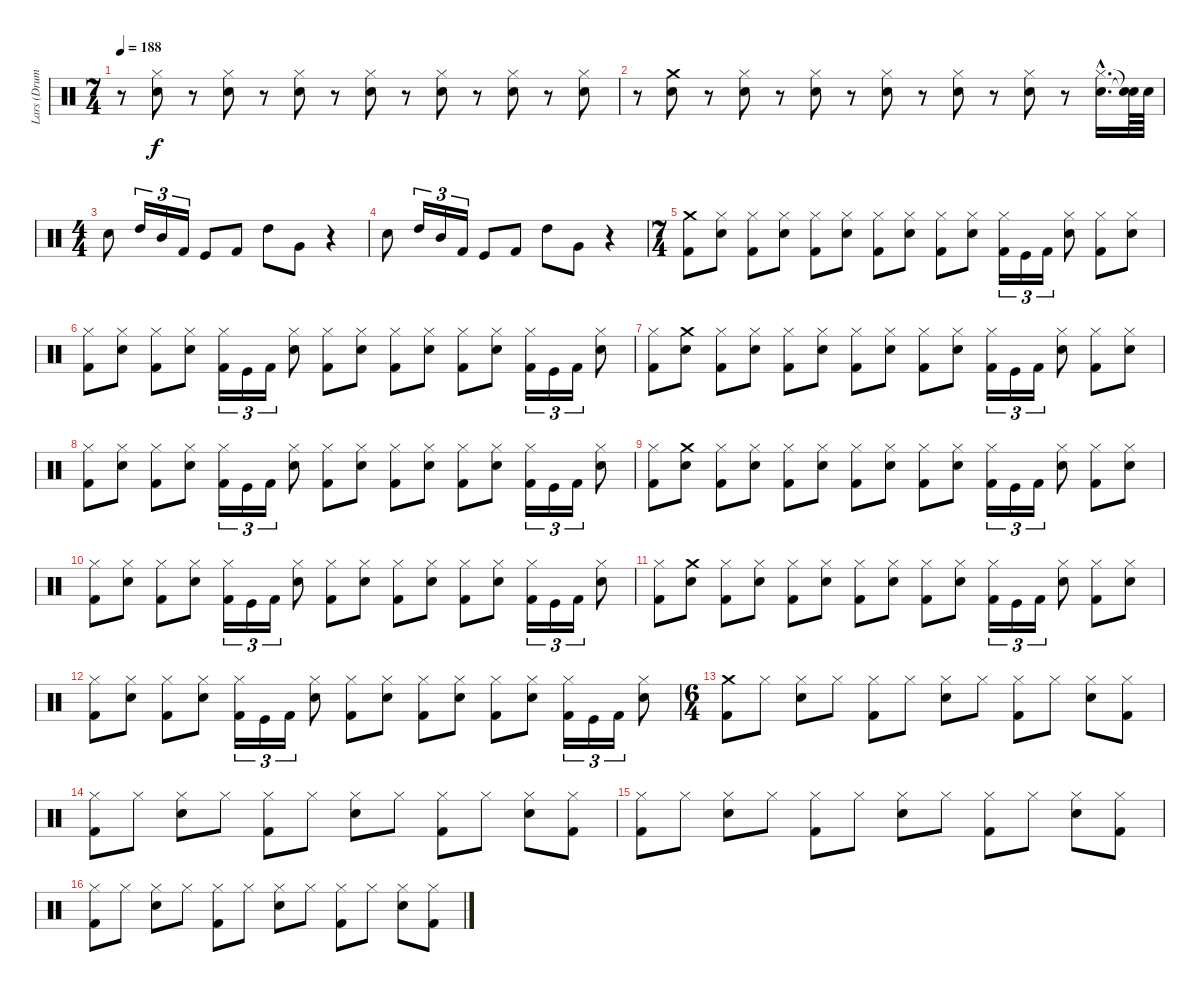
\track ("Lars (Drums)" "Lars (Drum") {instrument percussion}
\staff {score}
\articulation defaults
\ts (7 4)
\tempo 188
\clef neutral
\ks c
r.8{dy f} ("Snare (hit) 2" "Hi-Hat (closed)").8 r.8 ("Snare (hit) 2" "Hi-Hat (closed)").8 r.8 ("Snare (hit) 2" "Hi-Hat (closed)").8 r.8 ("Snare (hit) 2" "Hi-Hat (closed)").8 r.8 ("Snare (hit) 2" "Hi-Hat (closed)").8 r.8 ("Snare (hit) 2" "Hi-Hat (closed)").8 r.8 ("Snare (hit) 2" "Hi-Hat (closed)").8 |
r.8 ("Crash medium (hit)" "Snare (hit) 2").8 r.8 ("Snare (hit) 2" "Hi-Hat (closed)").8 r.8 ("Snare (hit) 2" "Hi-Hat (closed)").8 r.8 ("Snare (hit) 2" "Hi-Hat (closed)").8 r.8 ("Snare (hit) 2" "Hi-Hat (closed)").8 r.8 ("Snare (hit) 2" "Hi-Hat (closed)").8 r.8 ("Snare (hit) 2"{hac} "Hi-Hat (closed)"{hac}).16{d} ("Snare (hit)"{t} "Snare (hit)"{t}).64 "Snare (hit) 2".64 |
\ts (4 4)
"Snare (hit) 2".8 "High Tom (hit)".16{tu (3 2)} "Mid Tom (hit)".16{tu (3 2)} "Kick (hit) 2".16{tu (3 2)} "Kick (hit)".8 "Kick (hit) 2".8 "High Tom (hit)".8 "Very Low Tom (hit)".8 r.4 |
"Snare (hit) 2".8 "High Tom (hit)".16{tu (3 2)} "Mid Tom (hit)".16{tu (3 2)} "Kick (hit) 2".16{tu (3 2)} "Kick (hit)".8 "Kick (hit) 2".8 "High Tom (hit)".8 "Very Low Tom (hit)".8 r.4 |
\ts (7 4)
("Crash medium (hit)" "Kick (hit) 2").8 ("Snare (hit) 2" "Hi-Hat (closed)").8 ("Hi-Hat (closed)" "Kick (hit) 2").8 ("Snare (hit) 2" "Hi-Hat (closed)").8 ("Hi-Hat (closed)" "Kick (hit) 2").8 ("Snare (hit) 2" "Hi-Hat (closed)").8 ("Hi-Hat (closed)" "Kick (hit) 2").8 ("Snare (hit) 2" "Hi-Hat (closed)").8 ("Hi-Hat (closed)" "Kick (hit) 2").8 ("Snare (hit) 2" "Hi-Hat (closed)").8 ("Hi-Hat (closed)" "Kick (hit) 2").16{tu (3 2)} "Kick (hit)".16{tu (3 2)} "Kick (hit) 2".16{tu (3 2)} ("Snare (hit) 2" "Hi-Hat (closed)").8 ("Hi-Hat (closed)" "Kick (hit) 2").8 ("Snare (hit) 2" "Hi-Hat (closed)").8 |
("Hi-Hat (closed)" "Kick (hit) 2").8 ("Snare (hit) 2" "Hi-Hat (closed)").8 ("Hi-Hat (closed)" "Kick (hit) 2").8 ("Snare (hit) 2" "Hi-Hat (closed)").8 ("Hi-Hat (closed)" "Kick (hit) 2").16{tu (3 2)} "Kick (hit)".16{tu (3 2)} "Kick (hit) 2".16{tu (3 2)} ("Snare (hit) 2" "Hi-Hat (closed)").8 ("Hi-Hat (closed)" "Kick (hit) 2").8 ("Snare (hit) 2" "Hi-Hat (closed)").8 ("Hi-Hat (closed)" "Kick (hit) 2").8 ("Snare (hit) 2" "Hi-Hat (closed)").8 ("Kick (hit) 2" "Hi-Hat (closed)").8 ("Snare (hit) 2" "Hi-Hat (closed)").8 ("Kick (hit) 2" "Hi-Hat (closed)").16{tu (3 2)} "Kick (hit)".16{tu (3 2)} "Kick (hit) 2".16{tu (3 2)} ("Snare (hit) 2" "Hi-Hat (closed)").8 |
("Hi-Hat (closed)" "Kick (hit) 2").8 ("Crash medium (hit)" "Snare (hit) 2").8 ("Hi-Hat (closed)" "Kick (hit) 2").8 ("Snare (hit) 2" "Hi-Hat (closed)").8 ("Hi-Hat (closed)" "Kick (hit) 2").8 ("Snare (hit) 2" "Hi-Hat (closed)").8 ("Hi-Hat (closed)" "Kick (hit) 2").8 ("Snare (hit) 2" "Hi-Hat (closed)").8 ("Hi-Hat (closed)" "Kick (hit) 2").8 ("Snare (hit) 2" "Hi-Hat (closed)").8 ("Hi-Hat (closed)" "Kick (hit) 2").16{tu (3 2)} "Kick (hit)".16{tu (3 2)} "Kick (hit) 2".16{tu (3 2)} ("Snare (hit) 2" "Hi-Hat (closed)").8 ("Hi-Hat (closed)" "Kick (hit) 2").8 ("Snare (hit) 2" "Hi-Hat (closed)").8 |
("Hi-Hat (closed)" "Kick (hit) 2").8 ("Snare (hit) 2" "Hi-Hat (closed)").8 ("Hi-Hat (closed)" "Kick (hit) 2").8 ("Snare (hit) 2" "Hi-Hat (closed)").8 ("Hi-Hat (closed)" "Kick (hit) 2").16{tu (3 2)} "Kick (hit)".16{tu (3 2)} "Kick (hit) 2".16{tu (3 2)} ("Snare (hit) 2" "Hi-Hat (closed)").8 ("Hi-Hat (closed)" "Kick (hit) 2").8 ("Snare (hit) 2" "Hi-Hat (closed)").8 ("Hi-Hat (closed)" "Kick (hit) 2").8 ("Snare (hit) 2" "Hi-Hat (closed)").8 ("Kick (hit) 2" "Hi-Hat (closed)").8 ("Snare (hit) 2" "Hi-Hat (closed)").8 ("Kick (hit) 2" "Hi-Hat (closed)").16{tu (3 2)} "Kick (hit)".16{tu (3 2)} "Kick (hit) 2".16{tu (3 2)} ("Snare (hit) 2" "Hi-Hat (closed)").8 |
("Hi-Hat (closed)" "Kick (hit) 2").8 ("Crash medium (hit)" "Snare (hit) 2").8 ("Hi-Hat (closed)" "Kick (hit) 2").8 ("Snare (hit) 2" "Hi-Hat (closed)").8 ("Hi-Hat (closed)" "Kick (hit) 2").8 ("Snare (hit) 2" "Hi-Hat (closed)").8 ("Hi-Hat (closed)" "Kick (hit) 2").8 ("Snare (hit) 2" "Hi-Hat (closed)").8 ("Hi-Hat (closed)" "Kick (hit) 2").8 ("Snare (hit) 2" "Hi-Hat (closed)").8 ("Hi-Hat (closed)" "Kick (hit) 2").16{tu (3 2)} "Kick (hit)".16{tu (3 2)} "Kick (hit) 2".16{tu (3 2)} ("Snare (hit) 2" "Hi-Hat (closed)").8 ("Hi-Hat (closed)" "Kick (hit) 2").8 ("Snare (hit) 2" "Hi-Hat (closed)").8 |
("Hi-Hat (closed)" "Kick (hit) 2").8 ("Snare (hit) 2" "Hi-Hat (closed)").8 ("Hi-Hat (closed)" "Kick (hit) 2").8 ("Snare (hit) 2" "Hi-Hat (closed)").8 ("Hi-Hat (closed)" "Kick (hit) 2").16{tu (3 2)} "Kick (hit)".16{tu (3 2)} "Kick (hit) 2".16{tu (3 2)} ("Snare (hit) 2" "Hi-Hat (closed)").8 ("Hi-Hat (closed)" "Kick (hit) 2").8 ("Snare (hit) 2" "Hi-Hat (closed)").8 ("Hi-Hat (closed)" "Kick (hit) 2").8 ("Snare (hit) 2" "Hi-Hat (closed)").8 ("Kick (hit) 2" "Hi-Hat (closed)").8 ("Snare (hit) 2" "Hi-Hat (closed)").8 ("Kick (hit) 2" "Hi-Hat (closed)").16{tu (3 2)} "Kick (hit)".16{tu (3 2)} "Kick (hit) 2".16{tu (3 2)} ("Snare (hit) 2" "Hi-Hat (closed)").8 |
("Hi-Hat (closed)" "Kick (hit) 2").8 ("Crash medium (hit)" "Snare (hit) 2").8 ("Hi-Hat (closed)" "Kick (hit) 2").8 ("Snare (hit) 2" "Hi-Hat (closed)").8 ("Hi-Hat (closed)" "Kick (hit) 2").8 ("Snare (hit) 2" "Hi-Hat (closed)").8 ("Hi-Hat (closed)" "Kick (hit) 2").8 ("Snare (hit) 2" "Hi-Hat (closed)").8 ("Hi-Hat (closed)" "Kick (hit) 2").8 ("Snare (hit) 2" "Hi-Hat (closed)").8 ("Hi-Hat (closed)" "Kick (hit) 2").16{tu (3 2)} "Kick (hit)".16{tu (3 2)} "Kick (hit) 2".16{tu (3 2)} ("Snare (hit) 2" "Hi-Hat (closed)").8 ("Hi-Hat (closed)" "Kick (hit) 2").8 ("Snare (hit) 2" "Hi-Hat (closed)").8 |
("Hi-Hat (closed)" "Kick (hit) 2").8 ("Snare (hit) 2" "Hi-Hat (closed)").8 ("Hi-Hat (closed)" "Kick (hit) 2").8 ("Snare (hit) 2" "Hi-Hat (closed)").8 ("Hi-Hat (closed)" "Kick (hit) 2").16{tu (3 2)} "Kick (hit)".16{tu (3 2)} "Kick (hit) 2".16{tu (3 2)} ("Snare (hit) 2" "Hi-Hat (closed)").8 ("Hi-Hat (closed)" "Kick (hit) 2").8 ("Snare (hit) 2" "Hi-Hat (closed)").8 ("Hi-Hat (closed)" "Kick (hit) 2").8 ("Snare (hit) 2" "Hi-Hat (closed)").8 ("Kick (hit) 2" "Hi-Hat (closed)").8 ("Snare (hit) 2" "Hi-Hat (closed)").8 ("Kick (hit) 2" "Hi-Hat (closed)").16{tu (3 2)} "Kick (hit)".16{tu (3 2)} "Kick (hit) 2".16{tu (3 2)} ("Snare (hit) 2" "Hi-Hat (closed)").8 |
\ts (6 4)
("Kick (hit) 2" "Crash medium (hit)").8 "Hi-Hat (closed)".8 ("Snare (hit) 2" "Hi-Hat (closed)").8 "Hi-Hat (closed)".8 ("Kick (hit) 2" "Hi-Hat (closed)").8 "Hi-Hat (closed)".8 ("Snare (hit) 2" "Hi-Hat (closed)").8 "Hi-Hat (closed)".8 ("Kick (hit) 2" "Hi-Hat (closed)").8 "Hi-Hat (closed)".8 ("Snare (hit) 2" "Hi-Hat (closed)").8 ("Kick (hit) 2" "Hi-Hat (closed)").8 |
("Hi-Hat (closed)" "Kick (hit) 2").8 "Hi-Hat (closed)".8 ("Snare (hit) 2" "Hi-Hat (closed)").8 "Hi-Hat (closed)".8 ("Kick (hit) 2" "Hi-Hat (closed)").8 "Hi-Hat (closed)".8 ("Snare (hit) 2" "Hi-Hat (closed)").8 "Hi-Hat (closed)".8 ("Kick (hit) 2" "Hi-Hat (closed)").8 "Hi-Hat (closed)".8 ("Snare (hit) 2" "Hi-Hat (closed)").8 ("Kick (hit) 2" "Hi-Hat (closed)").8 |
("Hi-Hat (closed)" "Kick (hit) 2").8 "Hi-Hat (closed)".8 ("Snare (hit) 2" "Hi-Hat (closed)").8 "Hi-Hat (closed)".8 ("Kick (hit) 2" "Hi-Hat (closed)").8 "Hi-Hat (closed)".8 ("Snare (hit) 2" "Hi-Hat (closed)").8 "Hi-Hat (closed)".8 ("Kick (hit) 2" "Hi-Hat (closed)").8 "Hi-Hat (closed)".8 ("Snare (hit) 2" "Hi-Hat (closed)").8 ("Kick (hit) 2" "Hi-Hat (closed)").8 |
("Hi-Hat (closed)" "Kick (hit) 2").8 "Hi-Hat (closed)".8 ("Snare (hit) 2" "Hi-Hat (closed)").8 "Hi-Hat (closed)".8 ("Kick (hit) 2" "Hi-Hat (closed)").8 "Hi-Hat (closed)".8 ("Snare (hit) 2" "Hi-Hat (closed)").8 "Hi-Hat (closed)".8 ("Kick (hit) 2" "Hi-Hat (closed)").8 "Hi-Hat (closed)".8 ("Snare (hit) 2" "Hi-Hat (closed)").8 ("Kick (hit) 2" "Hi-Hat (closed)").8
